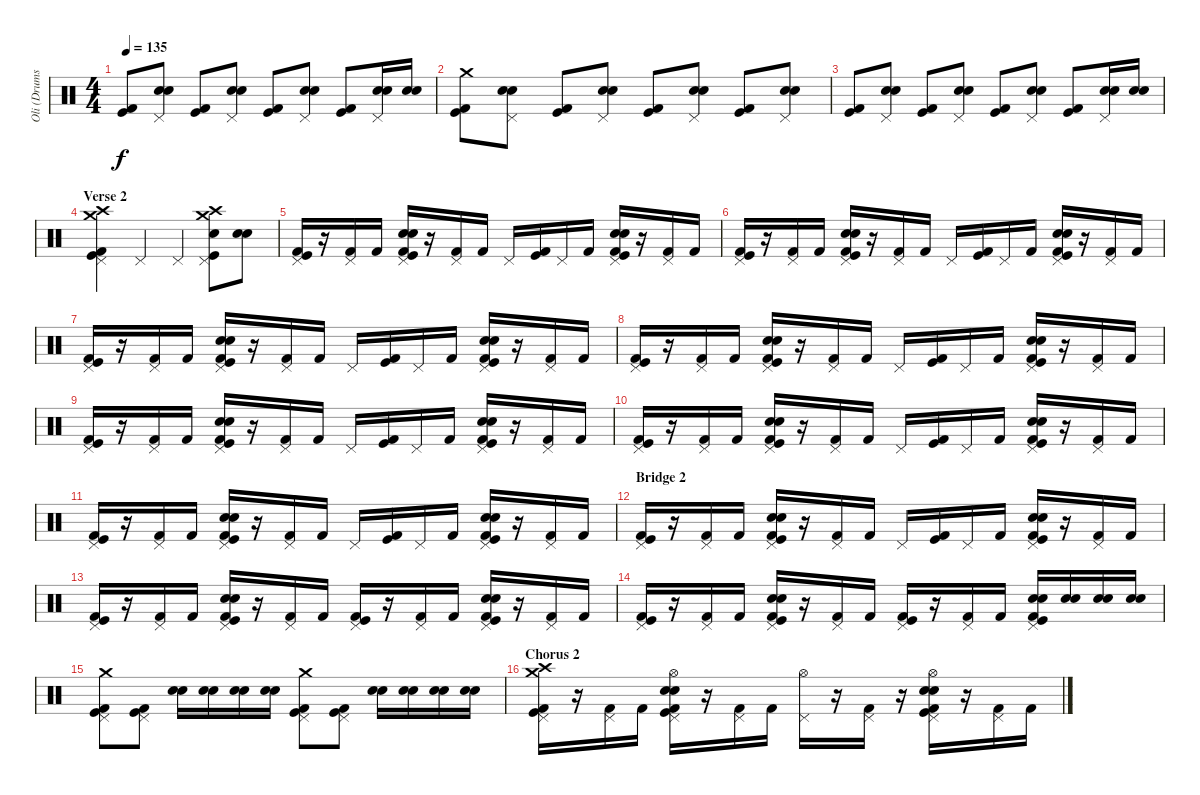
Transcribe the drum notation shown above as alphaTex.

\track ("Oli (Drums)" "Oli (Drums") {instrument percussion}
\staff {score}
\articulation defaults
\ts (4 4)
\tempo 135
\clef neutral
\ks c
("Kick (hit) 2" "Kick (hit)").8{dy f} ("Snare (hit) 2" "Electric Snare (hit)" "Pedal Hi-Hat (hit)").8 ("Kick (hit) 2" "Kick (hit)").8 ("Snare (hit) 2" "Electric Snare (hit)" "Pedal Hi-Hat (hit)").8 ("Kick (hit) 2" "Kick (hit)").8 ("Snare (hit) 2" "Electric Snare (hit)" "Pedal Hi-Hat (hit)").8 ("Kick (hit) 2" "Kick (hit)").8 ("Snare (hit) 2" "Electric Snare (hit)" "Pedal Hi-Hat (hit)").16 ("Snare (hit) 2" "Electric Snare (hit)").16 |
("Kick (hit) 2" "Kick (hit)" "Crash medium (hit)").8 ("Snare (hit) 2" "Electric Snare (hit)" "Pedal Hi-Hat (hit)").8 ("Kick (hit) 2" "Kick (hit)").8 ("Snare (hit) 2" "Electric Snare (hit)" "Pedal Hi-Hat (hit)").8 ("Kick (hit) 2" "Kick (hit)").8 ("Snare (hit) 2" "Electric Snare (hit)" "Pedal Hi-Hat (hit)").8 ("Kick (hit) 2" "Kick (hit)").8 ("Snare (hit) 2" "Electric Snare (hit)" "Pedal Hi-Hat (hit)").8 |
("Kick (hit) 2" "Kick (hit)").8 ("Snare (hit) 2" "Electric Snare (hit)" "Pedal Hi-Hat (hit)").8 ("Kick (hit) 2" "Kick (hit)").8 ("Snare (hit) 2" "Electric Snare (hit)" "Pedal Hi-Hat (hit)").8 ("Kick (hit) 2" "Kick (hit)").8 ("Snare (hit) 2" "Electric Snare (hit)" "Pedal Hi-Hat (hit)").8 ("Kick (hit) 2" "Kick (hit)").8 ("Snare (hit) 2" "Electric Snare (hit)" "Pedal Hi-Hat (hit)").16 ("Snare (hit) 2" "Electric Snare (hit)").16 |
\section ("" "Verse 2")
("Pedal Hi-Hat (hit)" "Kick (hit) 2" "Kick (hit)" "Crash medium (hit)" "Crash high (hit)").4 "Pedal Hi-Hat (hit)".4 "Pedal Hi-Hat (hit)".4 ("Pedal Hi-Hat (hit)" "Kick (hit)" "Electric Snare (hit)" "Crash medium (hit)" "Crash high (hit)").8 ("Snare (hit) 2" "Electric Snare (hit)").8 |
("Kick (hit) 2" "Kick (hit)" "Pedal Hi-Hat (hit)").16 r.16 ("Kick (hit) 2" "Pedal Hi-Hat (hit)").16 "Kick (hit) 2".16 ("Kick (hit) 2" "Snare (hit) 2" "Pedal Hi-Hat (hit)" "Electric Snare (hit)" "Kick (hit)").16 r.16 ("Kick (hit) 2" "Pedal Hi-Hat (hit)").16 "Kick (hit) 2".16 "Pedal Hi-Hat (hit)".16 ("Kick (hit)" "Kick (hit) 2").16 "Pedal Hi-Hat (hit)".16 "Kick (hit) 2".16 ("Kick (hit) 2" "Snare (hit) 2" "Pedal Hi-Hat (hit)" "Electric Snare (hit)" "Kick (hit)").16 r.16 ("Kick (hit) 2" "Pedal Hi-Hat (hit)").16 "Kick (hit) 2".16 |
("Kick (hit) 2" "Kick (hit)" "Pedal Hi-Hat (hit)").16 r.16 ("Kick (hit) 2" "Pedal Hi-Hat (hit)").16 "Kick (hit) 2".16 ("Kick (hit) 2" "Snare (hit) 2" "Pedal Hi-Hat (hit)" "Electric Snare (hit)" "Kick (hit)").16 r.16 ("Kick (hit) 2" "Pedal Hi-Hat (hit)").16 "Kick (hit) 2".16 "Pedal Hi-Hat (hit)".16 ("Kick (hit)" "Kick (hit) 2").16 "Pedal Hi-Hat (hit)".16 "Kick (hit) 2".16 ("Kick (hit) 2" "Snare (hit) 2" "Pedal Hi-Hat (hit)" "Electric Snare (hit)" "Kick (hit)").16 r.16 ("Kick (hit) 2" "Pedal Hi-Hat (hit)").16 "Kick (hit) 2".16 |
("Kick (hit) 2" "Kick (hit)" "Pedal Hi-Hat (hit)").16 r.16 ("Kick (hit) 2" "Pedal Hi-Hat (hit)").16 "Kick (hit) 2".16 ("Kick (hit) 2" "Snare (hit) 2" "Pedal Hi-Hat (hit)" "Electric Snare (hit)" "Kick (hit)").16 r.16 ("Kick (hit) 2" "Pedal Hi-Hat (hit)").16 "Kick (hit) 2".16 "Pedal Hi-Hat (hit)".16 ("Kick (hit)" "Kick (hit) 2").16 "Pedal Hi-Hat (hit)".16 "Kick (hit) 2".16 ("Kick (hit) 2" "Snare (hit) 2" "Pedal Hi-Hat (hit)" "Electric Snare (hit)" "Kick (hit)").16 r.16 ("Kick (hit) 2" "Pedal Hi-Hat (hit)").16 "Kick (hit) 2".16 |
("Kick (hit) 2" "Kick (hit)" "Pedal Hi-Hat (hit)").16 r.16 ("Kick (hit) 2" "Pedal Hi-Hat (hit)").16 "Kick (hit) 2".16 ("Kick (hit) 2" "Snare (hit) 2" "Pedal Hi-Hat (hit)" "Electric Snare (hit)" "Kick (hit)").16 r.16 ("Kick (hit) 2" "Pedal Hi-Hat (hit)").16 "Kick (hit) 2".16 "Pedal Hi-Hat (hit)".16 ("Kick (hit)" "Kick (hit) 2").16 "Pedal Hi-Hat (hit)".16 "Kick (hit) 2".16 ("Kick (hit) 2" "Snare (hit) 2" "Pedal Hi-Hat (hit)" "Electric Snare (hit)" "Kick (hit)").16 r.16 ("Kick (hit) 2" "Pedal Hi-Hat (hit)").16 "Kick (hit) 2".16 |
("Kick (hit) 2" "Kick (hit)" "Pedal Hi-Hat (hit)").16 r.16 ("Kick (hit) 2" "Pedal Hi-Hat (hit)").16 "Kick (hit) 2".16 ("Kick (hit) 2" "Snare (hit) 2" "Pedal Hi-Hat (hit)" "Electric Snare (hit)" "Kick (hit)").16 r.16 ("Kick (hit) 2" "Pedal Hi-Hat (hit)").16 "Kick (hit) 2".16 "Pedal Hi-Hat (hit)".16 ("Kick (hit)" "Kick (hit) 2").16 "Pedal Hi-Hat (hit)".16 "Kick (hit) 2".16 ("Kick (hit) 2" "Snare (hit) 2" "Pedal Hi-Hat (hit)" "Electric Snare (hit)" "Kick (hit)").16 r.16 ("Kick (hit) 2" "Pedal Hi-Hat (hit)").16 "Kick (hit) 2".16 |
("Kick (hit) 2" "Kick (hit)" "Pedal Hi-Hat (hit)").16 r.16 ("Kick (hit) 2" "Pedal Hi-Hat (hit)").16 "Kick (hit) 2".16 ("Kick (hit) 2" "Snare (hit) 2" "Pedal Hi-Hat (hit)" "Electric Snare (hit)" "Kick (hit)").16 r.16 ("Kick (hit) 2" "Pedal Hi-Hat (hit)").16 "Kick (hit) 2".16 "Pedal Hi-Hat (hit)".16 ("Kick (hit)" "Kick (hit) 2").16 "Pedal Hi-Hat (hit)".16 "Kick (hit) 2".16 ("Kick (hit) 2" "Snare (hit) 2" "Pedal Hi-Hat (hit)" "Electric Snare (hit)" "Kick (hit)").16 r.16 ("Kick (hit) 2" "Pedal Hi-Hat (hit)").16 "Kick (hit) 2".16 |
("Kick (hit) 2" "Kick (hit)" "Pedal Hi-Hat (hit)").16 r.16 ("Kick (hit) 2" "Pedal Hi-Hat (hit)").16 "Kick (hit) 2".16 ("Kick (hit) 2" "Snare (hit) 2" "Pedal Hi-Hat (hit)" "Electric Snare (hit)" "Kick (hit)").16 r.16 ("Kick (hit) 2" "Pedal Hi-Hat (hit)").16 "Kick (hit) 2".16 "Pedal Hi-Hat (hit)".16 ("Kick (hit)" "Kick (hit) 2").16 "Pedal Hi-Hat (hit)".16 "Kick (hit) 2".16 ("Kick (hit) 2" "Snare (hit) 2" "Pedal Hi-Hat (hit)" "Electric Snare (hit)" "Kick (hit)").16 r.16 ("Kick (hit) 2" "Pedal Hi-Hat (hit)").16 "Kick (hit) 2".16 |
\section ("" "Bridge 2")
("Kick (hit) 2" "Kick (hit)" "Pedal Hi-Hat (hit)").16 r.16 ("Kick (hit) 2" "Pedal Hi-Hat (hit)").16 "Kick (hit) 2".16 ("Kick (hit) 2" "Snare (hit) 2" "Pedal Hi-Hat (hit)" "Electric Snare (hit)" "Kick (hit)").16 r.16 ("Kick (hit) 2" "Pedal Hi-Hat (hit)").16 "Kick (hit) 2".16 "Pedal Hi-Hat (hit)".16 ("Kick (hit)" "Kick (hit) 2").16 "Pedal Hi-Hat (hit)".16 "Kick (hit) 2".16 ("Kick (hit) 2" "Snare (hit) 2" "Pedal Hi-Hat (hit)" "Electric Snare (hit)" "Kick (hit)").16 r.16 ("Kick (hit) 2" "Pedal Hi-Hat (hit)").16 "Kick (hit) 2".16 |
("Kick (hit) 2" "Kick (hit)" "Pedal Hi-Hat (hit)").16 r.16 ("Kick (hit) 2" "Pedal Hi-Hat (hit)").16 "Kick (hit) 2".16 ("Kick (hit) 2" "Snare (hit) 2" "Pedal Hi-Hat (hit)" "Electric Snare (hit)" "Kick (hit)").16 r.16 ("Kick (hit) 2" "Pedal Hi-Hat (hit)").16 "Kick (hit) 2".16 ("Kick (hit) 2" "Kick (hit)" "Pedal Hi-Hat (hit)").16 r.16 ("Kick (hit) 2" "Pedal Hi-Hat (hit)").16 "Kick (hit) 2".16 ("Kick (hit) 2" "Snare (hit) 2" "Pedal Hi-Hat (hit)" "Electric Snare (hit)" "Kick (hit)").16 r.16 ("Kick (hit) 2" "Pedal Hi-Hat (hit)").16 "Kick (hit) 2".16 |
("Kick (hit) 2" "Kick (hit)" "Pedal Hi-Hat (hit)").16 r.16 ("Kick (hit) 2" "Pedal Hi-Hat (hit)").16 "Kick (hit) 2".16 ("Kick (hit) 2" "Snare (hit) 2" "Pedal Hi-Hat (hit)" "Electric Snare (hit)" "Kick (hit)").16 r.16 ("Kick (hit) 2" "Pedal Hi-Hat (hit)").16 "Kick (hit) 2".16 ("Kick (hit) 2" "Kick (hit)" "Pedal Hi-Hat (hit)").16 r.16 ("Kick (hit) 2" "Pedal Hi-Hat (hit)").16 "Kick (hit) 2".16 ("Kick (hit) 2" "Snare (hit) 2" "Pedal Hi-Hat (hit)" "Electric Snare (hit)" "Kick (hit)").16 ("Electric Snare (hit)" "Snare (hit) 2").16 ("Electric Snare (hit)" "Snare (hit) 2").16 ("Electric Snare (hit)" "Snare (hit) 2").16 |
("Kick (hit) 2" "Kick (hit)" "Pedal Hi-Hat (hit)" "Crash medium (hit)").8 ("Kick (hit) 2" "Kick (hit)" "Pedal Hi-Hat (hit)").8 ("Snare (hit) 2" "Electric Snare (hit)").16 ("Snare (hit) 2" "Electric Snare (hit)").16 ("Snare (hit) 2" "Electric Snare (hit)").16 ("Snare (hit) 2" "Electric Snare (hit)").16 ("Kick (hit) 2" "Kick (hit)" "Pedal Hi-Hat (hit)" "Crash medium (hit)").8 ("Kick (hit) 2" "Kick (hit)" "Pedal Hi-Hat (hit)").8 ("Snare (hit) 2" "Electric Snare (hit)").16 ("Snare (hit) 2" "Electric Snare (hit)").16 ("Snare (hit) 2" "Electric Snare (hit)").16 ("Snare (hit) 2" "Electric Snare (hit)").16 |
\section ("" "Chorus 2")
("Kick (hit) 2" "Kick (hit)" "Pedal Hi-Hat (hit)" "Crash medium (hit)" "Crash high (hit)").16 r.16 ("Kick (hit) 2" "Pedal Hi-Hat (hit)").16 "Kick (hit) 2".16 ("Kick (hit) 2" "Snare (hit) 2" "Pedal Hi-Hat (hit)" "Electric Snare (hit)" "Kick (hit)" "Hi-Hat (open)").16 r.16 ("Kick (hit) 2" "Pedal Hi-Hat (hit)").16 "Kick (hit) 2".16 ("Pedal Hi-Hat (hit)" "Hi-Hat (open)").16 r.16 ("Kick (hit) 2" "Pedal Hi-Hat (hit)").16 r.16 ("Kick (hit) 2" "Snare (hit) 2" "Pedal Hi-Hat (hit)" "Electric Snare (hit)" "Kick (hit)" "Hi-Hat (open)").16 r.16 ("Kick (hit) 2" "Pedal Hi-Hat (hit)").16 "Kick (hit) 2".16
